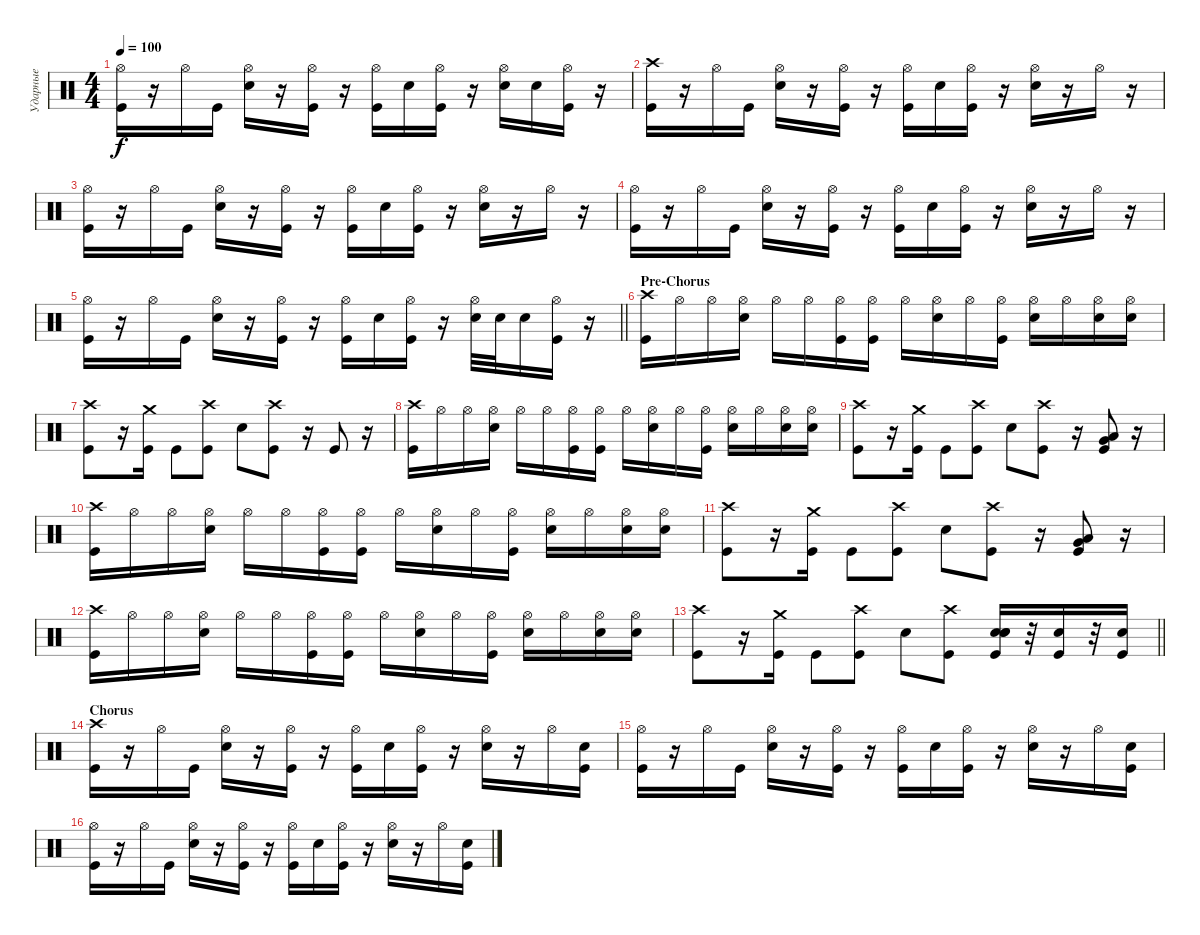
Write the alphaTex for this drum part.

\track ("Ударные" "Ударные") {instrument percussion}
\staff {score}
\articulation defaults
\ts (4 4)
\tempo 100
\clef neutral
\ks c
("Hi-Hat (open)" "Kick (hit)").16{dy f} r.16 "Hi-Hat (open)".16 "Kick (hit)".16 ("Hi-Hat (open)" "Snare (hit) 2").16 r.16 ("Hi-Hat (open)" "Kick (hit)").16 r.16 ("Hi-Hat (open)" "Kick (hit)").16 "Snare (hit) 2".16 ("Hi-Hat (open)" "Kick (hit)").16 r.16 ("Hi-Hat (open)" "Snare (hit) 2").16 "Snare (hit) 2".16 ("Hi-Hat (open)" "Kick (hit)").16 r.16 |
("Crash high (hit)" "Kick (hit)").16 r.16 "Hi-Hat (open)".16 "Kick (hit)".16 ("Hi-Hat (open)" "Snare (hit) 2").16 r.16 ("Hi-Hat (open)" "Kick (hit)").16 r.16 ("Hi-Hat (open)" "Kick (hit)").16 "Snare (hit) 2".16 ("Hi-Hat (open)" "Kick (hit)").16 r.16 ("Hi-Hat (open)" "Snare (hit) 2").16 r.16 "Hi-Hat (open)".16 r.16 |
("Hi-Hat (open)" "Kick (hit)").16 r.16 "Hi-Hat (open)".16 "Kick (hit)".16 ("Hi-Hat (open)" "Snare (hit) 2").16 r.16 ("Hi-Hat (open)" "Kick (hit)").16 r.16 ("Hi-Hat (open)" "Kick (hit)").16 "Snare (hit) 2".16 ("Hi-Hat (open)" "Kick (hit)").16 r.16 ("Hi-Hat (open)" "Snare (hit) 2").16 r.16 "Hi-Hat (open)".16 r.16 |
("Hi-Hat (open)" "Kick (hit)").16 r.16 "Hi-Hat (open)".16 "Kick (hit)".16 ("Hi-Hat (open)" "Snare (hit) 2").16 r.16 ("Hi-Hat (open)" "Kick (hit)").16 r.16 ("Hi-Hat (open)" "Kick (hit)").16 "Snare (hit) 2".16 ("Hi-Hat (open)" "Kick (hit)").16 r.16 ("Hi-Hat (open)" "Snare (hit) 2").16 r.16 "Hi-Hat (open)".16 r.16 |
\barLineRight lightlight
("Hi-Hat (open)" "Kick (hit)").16 r.16 "Hi-Hat (open)".16 "Kick (hit)".16 ("Hi-Hat (open)" "Snare (hit) 2").16 r.16 ("Hi-Hat (open)" "Kick (hit)").16 r.16 ("Hi-Hat (open)" "Kick (hit)").16 "Snare (hit) 2".16 ("Hi-Hat (open)" "Kick (hit)").16 r.16 ("Hi-Hat (open)" "Snare (hit) 2").32 "Snare (hit) 2".32 "Snare (hit) 2".16 ("Hi-Hat (open)" "Kick (hit)").16 r.16 |
\section ("" "Pre-Chorus")
("Crash high (hit)" "Kick (hit)").16 "Hi-Hat (open)".16 "Hi-Hat (open)".16 ("Hi-Hat (open)" "Snare (hit) 2").16 "Hi-Hat (open)".16 "Hi-Hat (open)".16 ("Hi-Hat (open)" "Kick (hit)").16 ("Hi-Hat (open)" "Kick (hit)").16 "Hi-Hat (open)".16 ("Hi-Hat (open)" "Snare (hit) 2").16 "Hi-Hat (open)".16 ("Hi-Hat (open)" "Kick (hit)").16 ("Hi-Hat (open)" "Snare (hit) 2").16 "Hi-Hat (open)".16 ("Hi-Hat (open)" "Snare (hit) 2").16 ("Hi-Hat (open)" "Snare (hit) 2").16 |
("Crash high (hit)" "Kick (hit)").8 r.16 ("Crash medium (hit)" "Kick (hit)").16 "Kick (hit)".8 ("Crash high (hit)" "Kick (hit)").8 "Snare (hit) 2".8 ("Crash high (hit)" "Kick (hit)").8 r.16 "Kick (hit)".8 r.16 |
("Crash high (hit)" "Kick (hit)").16 "Hi-Hat (open)".16 "Hi-Hat (open)".16 ("Hi-Hat (open)" "Snare (hit) 2").16 "Hi-Hat (open)".16 "Hi-Hat (open)".16 ("Hi-Hat (open)" "Kick (hit)").16 ("Hi-Hat (open)" "Kick (hit)").16 "Hi-Hat (open)".16 ("Hi-Hat (open)" "Snare (hit) 2").16 "Hi-Hat (open)".16 ("Hi-Hat (open)" "Kick (hit)").16 ("Hi-Hat (open)" "Snare (hit) 2").16 "Hi-Hat (open)".16 ("Hi-Hat (open)" "Snare (hit) 2").16 ("Hi-Hat (open)" "Snare (hit) 2").16 |
("Crash high (hit)" "Kick (hit)").8 r.16 ("Crash medium (hit)" "Kick (hit)").16 "Kick (hit)".8 ("Crash high (hit)" "Kick (hit)").8 "Snare (hit) 2".8 ("Crash high (hit)" "Kick (hit)").8 r.16 ("Low Tom (hit)" "Very Low Tom (hit)" "Kick (hit)").8 r.16 |
("Crash high (hit)" "Kick (hit)").16 "Hi-Hat (open)".16 "Hi-Hat (open)".16 ("Hi-Hat (open)" "Snare (hit) 2").16 "Hi-Hat (open)".16 "Hi-Hat (open)".16 ("Hi-Hat (open)" "Kick (hit)").16 ("Hi-Hat (open)" "Kick (hit)").16 "Hi-Hat (open)".16 ("Hi-Hat (open)" "Snare (hit) 2").16 "Hi-Hat (open)".16 ("Hi-Hat (open)" "Kick (hit)").16 ("Hi-Hat (open)" "Snare (hit) 2").16 "Hi-Hat (open)".16 ("Hi-Hat (open)" "Snare (hit) 2").16 ("Hi-Hat (open)" "Snare (hit) 2").16 |
("Crash high (hit)" "Kick (hit)").8 r.16 ("Crash medium (hit)" "Kick (hit)").16 "Kick (hit)".8 ("Crash high (hit)" "Kick (hit)").8 "Snare (hit) 2".8 ("Crash high (hit)" "Kick (hit)").8 r.16 ("Very Low Tom (hit)" "Low Floor Tom (hit)" "Kick (hit)").8 r.16 |
("Crash high (hit)" "Kick (hit)").16 "Hi-Hat (open)".16 "Hi-Hat (open)".16 ("Hi-Hat (open)" "Snare (hit) 2").16 "Hi-Hat (open)".16 "Hi-Hat (open)".16 ("Hi-Hat (open)" "Kick (hit)").16 ("Hi-Hat (open)" "Kick (hit)").16 "Hi-Hat (open)".16 ("Hi-Hat (open)" "Snare (hit) 2").16 "Hi-Hat (open)".16 ("Hi-Hat (open)" "Kick (hit)").16 ("Hi-Hat (open)" "Snare (hit) 2").16 "Hi-Hat (open)".16 ("Hi-Hat (open)" "Snare (hit) 2").16 ("Hi-Hat (open)" "Snare (hit) 2").16 |
\barLineRight lightlight
("Crash high (hit)" "Kick (hit)").8 r.16 ("Crash medium (hit)" "Kick (hit)").16 "Kick (hit)".8 ("Crash high (hit)" "Kick (hit)").8 "Snare (hit) 2".8 ("Crash high (hit)" "Kick (hit)").8 ("Snare (hit) 2" "Snare (hit) 2" "Snare (hit) 2" "Kick (hit)").16{bu 480} r.32 ("Snare (hit) 2" "Kick (hit)").16 r.32 ("Snare (hit) 2" "Kick (hit)").16 |
\section ("" "Chorus")
("Crash high (hit)" "Kick (hit)").16 r.16 "Hi-Hat (open)".16 "Kick (hit)".16 ("Hi-Hat (open)" "Snare (hit) 2").16 r.16 ("Hi-Hat (open)" "Kick (hit)").16 r.16 ("Hi-Hat (open)" "Kick (hit)").16 "Snare (hit) 2".16 ("Hi-Hat (open)" "Kick (hit)").16 r.16 ("Hi-Hat (open)" "Snare (hit) 2").16 r.16 "Hi-Hat (open)".16 ("Snare (hit) 2" "Kick (hit)").16 |
("Hi-Hat (open)" "Kick (hit)").16 r.16 "Hi-Hat (open)".16 "Kick (hit)".16 ("Hi-Hat (open)" "Snare (hit) 2").16 r.16 ("Hi-Hat (open)" "Kick (hit)").16 r.16 ("Hi-Hat (open)" "Kick (hit)").16 "Snare (hit) 2".16 ("Hi-Hat (open)" "Kick (hit)").16 r.16 ("Hi-Hat (open)" "Snare (hit) 2").16 r.16 "Hi-Hat (open)".16 ("Snare (hit) 2" "Kick (hit)").16 |
("Hi-Hat (open)" "Kick (hit)").16 r.16 "Hi-Hat (open)".16 "Kick (hit)".16 ("Hi-Hat (open)" "Snare (hit) 2").16 r.16 ("Hi-Hat (open)" "Kick (hit)").16 r.16 ("Hi-Hat (open)" "Kick (hit)").16 "Snare (hit) 2".16 ("Hi-Hat (open)" "Kick (hit)").16 r.16 ("Hi-Hat (open)" "Snare (hit) 2").16 r.16 "Hi-Hat (open)".16 ("Snare (hit) 2" "Kick (hit)").16
